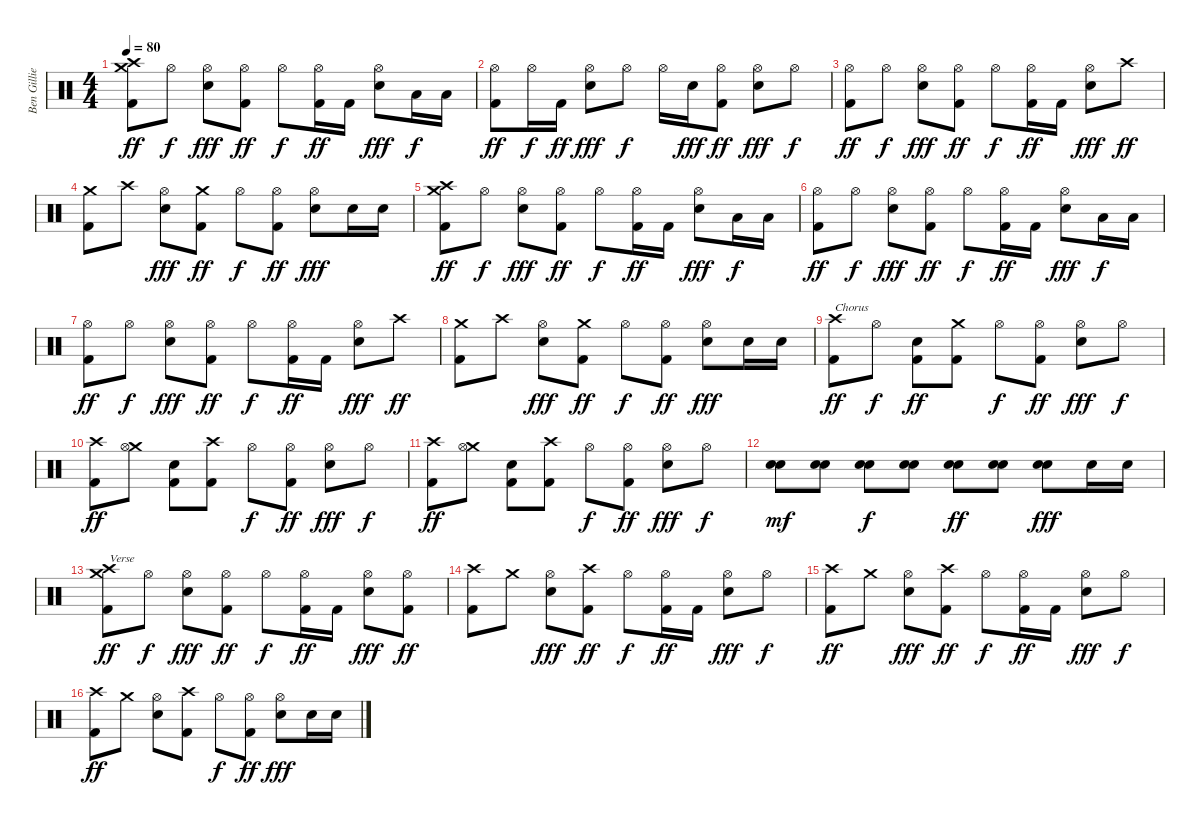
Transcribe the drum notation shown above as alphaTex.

\track ("Ben Gillies" "Ben Gillie") {instrument percussion}
\staff {score}
\articulation defaults
\ts (4 4)
\tempo 80
\clef neutral
\ks c
("Crash high (hit)" "Crash medium (hit)" "Kick (hit) 2").8{dy ff} "Hi-Hat (open)".8{dy f} ("Hi-Hat (open)" "Electric Snare (hit)").8{dy fff} ("Hi-Hat (open)" "Kick (hit) 2").8{dy ff} "Hi-Hat (open)".8{dy f} ("Hi-Hat (open)" "Kick (hit) 2").16{dy ff} "Kick (hit) 2".16 ("Hi-Hat (open)" "Electric Snare (hit)").8{dy fff} "Low Floor Tom (hit)".16{dy f} "Low Floor Tom (hit)".16 |
("Hi-Hat (open)" "Kick (hit) 2").8{dy ff} "Hi-Hat (open)".16{dy f} "Kick (hit) 2".16{dy ff} ("Hi-Hat (open)" "Electric Snare (hit)").8{dy fff} "Hi-Hat (open)".8{dy f} "Hi-Hat (open)".16 "Electric Snare (hit)".16{dy fff} ("Hi-Hat (open)" "Kick (hit) 2").8{dy ff} ("Hi-Hat (open)" "Electric Snare (hit)").8{dy fff} "Hi-Hat (open)".8{dy f} |
("Hi-Hat (open)" "Kick (hit) 2").8{dy ff} "Hi-Hat (open)".8{dy f} ("Hi-Hat (open)" "Electric Snare (hit)").8{dy fff} ("Hi-Hat (open)" "Kick (hit) 2").8{dy ff} "Hi-Hat (open)".8{dy f} ("Hi-Hat (open)" "Kick (hit) 2").16{dy ff} "Kick (hit) 2".16 ("Hi-Hat (open)" "Electric Snare (hit)").8{dy fff} "Crash high (hit)".8{dy ff} |
("Crash medium (hit)" "Kick (hit) 2").8 "Crash high (hit)".8 ("Hi-Hat (open)" "Electric Snare (hit)").8{dy fff} ("Crash medium (hit)" "Kick (hit) 2").8{dy ff} "Hi-Hat (open)".8{dy f} ("Hi-Hat (open)" "Kick (hit) 2").8{dy ff} ("Hi-Hat (open)" "Electric Snare (hit)").8{dy fff} "Electric Snare (hit)".16 "Electric Snare (hit)".16 |
("Crash high (hit)" "Crash medium (hit)" "Kick (hit) 2").8{dy ff} "Hi-Hat (open)".8{dy f} ("Hi-Hat (open)" "Electric Snare (hit)").8{dy fff} ("Hi-Hat (open)" "Kick (hit) 2").8{dy ff} "Hi-Hat (open)".8{dy f} ("Hi-Hat (open)" "Kick (hit) 2").16{dy ff} "Kick (hit) 2".16 ("Hi-Hat (open)" "Electric Snare (hit)").8{dy fff} "Low Floor Tom (hit)".16{dy f} "Low Floor Tom (hit)".16 |
("Hi-Hat (open)" "Kick (hit) 2").8{dy ff} "Hi-Hat (open)".8{dy f} ("Hi-Hat (open)" "Electric Snare (hit)").8{dy fff} ("Hi-Hat (open)" "Kick (hit) 2").8{dy ff} "Hi-Hat (open)".8{dy f} ("Hi-Hat (open)" "Kick (hit) 2").16{dy ff} "Kick (hit) 2".16 ("Hi-Hat (open)" "Electric Snare (hit)").8{dy fff} "Low Floor Tom (hit)".16{dy f} "Low Floor Tom (hit)".16 |
("Hi-Hat (open)" "Kick (hit) 2").8{dy ff} "Hi-Hat (open)".8{dy f} ("Hi-Hat (open)" "Electric Snare (hit)").8{dy fff} ("Hi-Hat (open)" "Kick (hit) 2").8{dy ff} "Hi-Hat (open)".8{dy f} ("Hi-Hat (open)" "Kick (hit) 2").16{dy ff} "Kick (hit) 2".16 ("Hi-Hat (open)" "Electric Snare (hit)").8{dy fff} "Crash high (hit)".8{dy ff} |
("Crash medium (hit)" "Kick (hit) 2").8 "Crash high (hit)".8 ("Hi-Hat (open)" "Electric Snare (hit)").8{dy fff} ("Crash medium (hit)" "Kick (hit) 2").8{dy ff} "Hi-Hat (open)".8{dy f} ("Hi-Hat (open)" "Kick (hit) 2").8{dy ff} ("Hi-Hat (open)" "Electric Snare (hit)").8{dy fff} "Electric Snare (hit)".16 "Electric Snare (hit)".16 |
("Crash high (hit)" "Kick (hit) 2").8{txt "Chorus" dy ff} "Hi-Hat (open)".8{dy f} ("Electric Snare (hit)" "Kick (hit) 2").8{dy ff} ("Crash medium (hit)" "Kick (hit) 2").8 "Hi-Hat (open)".8{dy f} ("Hi-Hat (open)" "Kick (hit) 2").8{dy ff} ("Hi-Hat (open)" "Electric Snare (hit)").8{dy fff} "Hi-Hat (open)".8{dy f} |
("Crash high (hit)" "Kick (hit) 2").8{dy ff} ("Crash medium (hit)" "Hi-Hat (open)").8 ("Electric Snare (hit)" "Kick (hit) 2").8 ("Crash high (hit)" "Kick (hit) 2").8 "Hi-Hat (open)".8{dy f} ("Hi-Hat (open)" "Kick (hit) 2").8{dy ff} ("Hi-Hat (open)" "Electric Snare (hit)").8{dy fff} "Hi-Hat (open)".8{dy f} |
("Crash high (hit)" "Kick (hit) 2").8{dy ff} ("Crash medium (hit)" "Hi-Hat (open)").8 ("Electric Snare (hit)" "Kick (hit) 2").8 ("Crash high (hit)" "Kick (hit) 2").8 "Hi-Hat (open)".8{dy f} ("Hi-Hat (open)" "Kick (hit) 2").8{dy ff} ("Hi-Hat (open)" "Electric Snare (hit)").8{dy fff} "Hi-Hat (open)".8{dy f} |
("Electric Snare (hit)" "Electric Snare (hit)").8{dy mf} ("Electric Snare (hit)" "Electric Snare (hit)").8 ("Electric Snare (hit)" "Electric Snare (hit)").8{dy f} ("Electric Snare (hit)" "Electric Snare (hit)").8 ("Electric Snare (hit)" "Electric Snare (hit)").8{dy ff} ("Electric Snare (hit)" "Electric Snare (hit)").8 ("Electric Snare (hit)" "Electric Snare (hit)").8{dy fff} "Electric Snare (hit)".16 "Electric Snare (hit)".16 |
("Crash high (hit)" "Crash medium (hit)" "Kick (hit) 2").8{txt "Verse" dy ff} "Hi-Hat (open)".8{dy f} ("Hi-Hat (open)" "Electric Snare (hit)").8{dy fff} ("Hi-Hat (open)" "Kick (hit) 2").8{dy ff} "Hi-Hat (open)".8{dy f} ("Hi-Hat (open)" "Kick (hit) 2").16{dy ff} "Kick (hit) 2".16 ("Hi-Hat (open)" "Electric Snare (hit)").8{dy fff} ("Hi-Hat (open)" "Kick (hit) 2").8{dy ff} |
("Crash high (hit)" "Kick (hit) 2").8 "Crash medium (hit)".8 ("Hi-Hat (open)" "Electric Snare (hit)").8{dy fff} ("Crash high (hit)" "Kick (hit) 2").8{dy ff} "Hi-Hat (open)".8{dy f} ("Hi-Hat (open)" "Kick (hit) 2").16{dy ff} "Kick (hit) 2".16 ("Hi-Hat (open)" "Electric Snare (hit)").8{dy fff} "Hi-Hat (open)".8{dy f} |
("Crash high (hit)" "Kick (hit) 2").8{dy ff} "Crash medium (hit)".8 ("Hi-Hat (open)" "Electric Snare (hit)").8{dy fff} ("Crash high (hit)" "Kick (hit) 2").8{dy ff} "Hi-Hat (open)".8{dy f} ("Hi-Hat (open)" "Kick (hit) 2").16{dy ff} "Kick (hit) 2".16 ("Hi-Hat (open)" "Electric Snare (hit)").8{dy fff} "Hi-Hat (open)".8{dy f} |
("Crash high (hit)" "Kick (hit) 2").8{dy ff} "Crash medium (hit)".8 ("Hi-Hat (open)" "Electric Snare (hit)").8 ("Crash high (hit)" "Kick (hit) 2").8 "Hi-Hat (open)".8{dy f} ("Hi-Hat (open)" "Kick (hit) 2").8{dy ff} ("Hi-Hat (open)" "Electric Snare (hit)").8{dy fff} "Electric Snare (hit)".16 "Electric Snare (hit)".16
